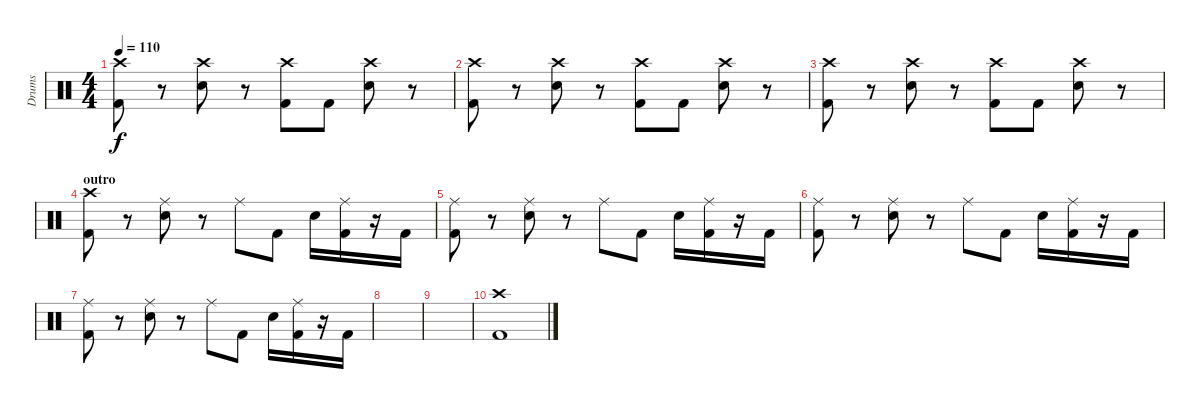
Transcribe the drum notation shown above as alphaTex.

\track ("Drums" "Drums") {instrument percussion}
\staff {score}
\articulation defaults
\ts (4 4)
\tempo 110
\clef neutral
\ks c
("Crash high (hit)" "Kick (hit) 2").8{dy f} r.8 ("Crash high (hit)" "Snare (hit) 2").8 r.8 ("Crash high (hit)" "Kick (hit) 2").8 "Kick (hit) 2".8 ("Crash high (hit)" "Snare (hit) 2").8 r.8 |
("Crash high (hit)" "Kick (hit) 2").8 r.8 ("Crash high (hit)" "Snare (hit) 2").8 r.8 ("Crash high (hit)" "Kick (hit) 2").8 "Kick (hit) 2".8 ("Crash high (hit)" "Snare (hit) 2").8 r.8 |
("Crash high (hit)" "Kick (hit) 2").8 r.8 ("Crash high (hit)" "Snare (hit) 2").8 r.8 ("Crash high (hit)" "Kick (hit) 2").8 "Kick (hit) 2".8 ("Crash high (hit)" "Snare (hit) 2").8 r.8 |
\section ("" "outro")
("Crash high (hit)" "Kick (hit) 2").8 r.8 ("Ride (middle)" "Snare (hit) 2").8 r.8 "Ride (middle)".8 "Kick (hit) 2".8 "Snare (hit) 2".16 ("Ride (middle)" "Kick (hit) 2").16 r.16 "Kick (hit) 2".16 |
("Ride (middle)" "Kick (hit) 2").8 r.8 ("Ride (middle)" "Snare (hit) 2").8 r.8 "Ride (middle)".8 "Kick (hit) 2".8 "Snare (hit) 2".16 ("Ride (middle)" "Kick (hit) 2").16 r.16 "Kick (hit) 2".16 |
("Ride (middle)" "Kick (hit) 2").8 r.8 ("Ride (middle)" "Snare (hit) 2").8 r.8 "Ride (middle)".8 "Kick (hit) 2".8 "Snare (hit) 2".16 ("Ride (middle)" "Kick (hit) 2").16 r.16 "Kick (hit) 2".16 |
("Ride (middle)" "Kick (hit) 2").8 r.8 ("Ride (middle)" "Snare (hit) 2").8 r.8 "Ride (middle)".8 "Kick (hit) 2".8 "Snare (hit) 2".16 ("Ride (middle)" "Kick (hit) 2").16 r.16 "Kick (hit) 2".16 |
|
|
("Crash high (hit)" "Kick (hit) 2").1
